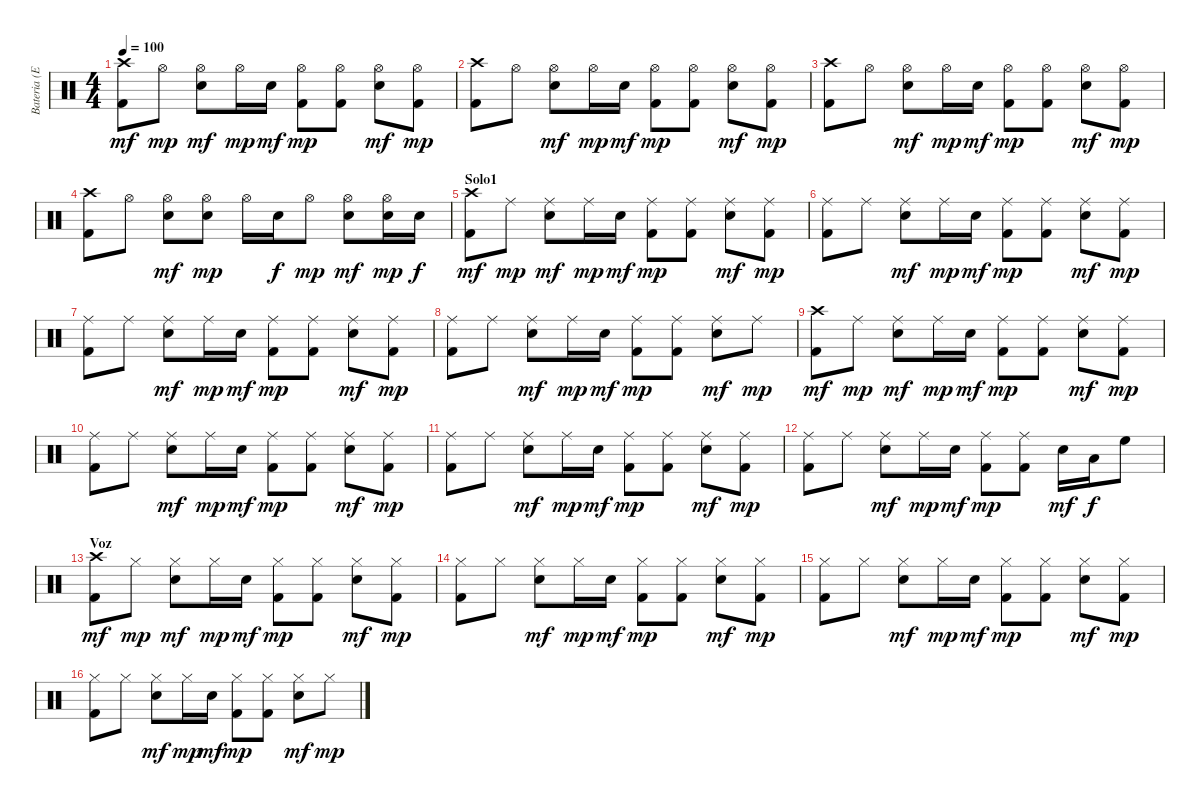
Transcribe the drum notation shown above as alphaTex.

\track ("Bateria (Eduardo)" "Bateria (E") {instrument percussion}
\staff {score}
\articulation defaults
\ts (4 4)
\tempo 100
\clef neutral
\ks c
("Crash high (hit)" "Kick (hit) 2").8{dy mf} "Hi-Hat (open)".8{dy mp} ("Hi-Hat (open)" "Electric Snare (hit)").8{dy mf} "Hi-Hat (open)".16{dy mp} "Electric Snare (hit)".16{dy mf} ("Hi-Hat (open)" "Kick (hit) 2").8{dy mp} ("Hi-Hat (open)" "Kick (hit) 2").8 ("Hi-Hat (open)" "Electric Snare (hit)").8{dy mf} ("Hi-Hat (open)" "Kick (hit) 2").8{dy mp} |
("Crash high (hit)" "Kick (hit) 2").8 "Hi-Hat (open)".8 ("Hi-Hat (open)" "Electric Snare (hit)").8{dy mf} "Hi-Hat (open)".16{dy mp} "Electric Snare (hit)".16{dy mf} ("Hi-Hat (open)" "Kick (hit) 2").8{dy mp} ("Hi-Hat (open)" "Kick (hit) 2").8 ("Hi-Hat (open)" "Electric Snare (hit)").8{dy mf} ("Hi-Hat (open)" "Kick (hit) 2").8{dy mp} |
("Crash high (hit)" "Kick (hit) 2").8 "Hi-Hat (open)".8 ("Hi-Hat (open)" "Electric Snare (hit)").8{dy mf} "Hi-Hat (open)".16{dy mp} "Electric Snare (hit)".16{dy mf} ("Hi-Hat (open)" "Kick (hit) 2").8{dy mp} ("Hi-Hat (open)" "Kick (hit) 2").8 ("Hi-Hat (open)" "Electric Snare (hit)").8{dy mf} ("Hi-Hat (open)" "Kick (hit) 2").8{dy mp} |
("Crash high (hit)" "Kick (hit) 2").8 "Hi-Hat (open)".8 ("Hi-Hat (open)" "Electric Snare (hit)").8{dy mf} ("Hi-Hat (open)" "Electric Snare (hit)").8{dy mp} "Hi-Hat (open)".16 "Electric Snare (hit)".16{dy f} "Hi-Hat (open)".8{dy mp} ("Hi-Hat (open)" "Electric Snare (hit)").8{dy mf} ("Hi-Hat (open)" "Electric Snare (hit)").16{dy mp} "Electric Snare (hit)".16{dy f} |
\section ("" "Solo1")
("Crash high (hit)" "Kick (hit) 2").8{dy mf} "Ride (middle)".8{dy mp} ("Ride (middle)" "Electric Snare (hit)").8{dy mf} "Ride (middle)".16{dy mp} "Electric Snare (hit)".16{dy mf} ("Ride (middle)" "Kick (hit) 2").8{dy mp} ("Ride (middle)" "Kick (hit) 2").8 ("Ride (middle)" "Electric Snare (hit)").8{dy mf} ("Ride (middle)" "Kick (hit) 2").8{dy mp} |
("Ride (middle)" "Kick (hit) 2").8 "Ride (middle)".8 ("Ride (middle)" "Electric Snare (hit)").8{dy mf} "Ride (middle)".16{dy mp} "Electric Snare (hit)".16{dy mf} ("Ride (middle)" "Kick (hit) 2").8{dy mp} ("Ride (middle)" "Kick (hit) 2").8 ("Ride (middle)" "Electric Snare (hit)").8{dy mf} ("Ride (middle)" "Kick (hit) 2").8{dy mp} |
("Ride (middle)" "Kick (hit) 2").8 "Ride (middle)".8 ("Ride (middle)" "Electric Snare (hit)").8{dy mf} "Ride (middle)".16{dy mp} "Electric Snare (hit)".16{dy mf} ("Ride (middle)" "Kick (hit) 2").8{dy mp} ("Ride (middle)" "Kick (hit) 2").8 ("Ride (middle)" "Electric Snare (hit)").8{dy mf} ("Ride (middle)" "Kick (hit) 2").8{dy mp} |
("Ride (middle)" "Kick (hit) 2").8 "Ride (middle)".8 ("Ride (middle)" "Electric Snare (hit)").8{dy mf} "Ride (middle)".16{dy mp} "Electric Snare (hit)".16{dy mf} ("Ride (middle)" "Kick (hit) 2").8{dy mp} ("Ride (middle)" "Kick (hit) 2").8 ("Ride (middle)" "Electric Snare (hit)").8{dy mf} "Ride (middle)".8{dy mp} |
("Crash high (hit)" "Kick (hit) 2").8{dy mf} "Ride (middle)".8{dy mp} ("Ride (middle)" "Electric Snare (hit)").8{dy mf} "Ride (middle)".16{dy mp} "Electric Snare (hit)".16{dy mf} ("Ride (middle)" "Kick (hit) 2").8{dy mp} ("Ride (middle)" "Kick (hit) 2").8 ("Ride (middle)" "Electric Snare (hit)").8{dy mf} ("Ride (middle)" "Kick (hit) 2").8{dy mp} |
("Ride (middle)" "Kick (hit) 2").8 "Ride (middle)".8 ("Ride (middle)" "Electric Snare (hit)").8{dy mf} "Ride (middle)".16{dy mp} "Electric Snare (hit)".16{dy mf} ("Ride (middle)" "Kick (hit) 2").8{dy mp} ("Ride (middle)" "Kick (hit) 2").8 ("Ride (middle)" "Electric Snare (hit)").8{dy mf} ("Ride (middle)" "Kick (hit) 2").8{dy mp} |
("Ride (middle)" "Kick (hit) 2").8 "Ride (middle)".8 ("Ride (middle)" "Electric Snare (hit)").8{dy mf} "Ride (middle)".16{dy mp} "Electric Snare (hit)".16{dy mf} ("Ride (middle)" "Kick (hit) 2").8{dy mp} ("Ride (middle)" "Kick (hit) 2").8 ("Ride (middle)" "Electric Snare (hit)").8{dy mf} ("Ride (middle)" "Kick (hit) 2").8{dy mp} |
("Ride (middle)" "Kick (hit) 2").8 "Ride (middle)".8 ("Ride (middle)" "Electric Snare (hit)").8{dy mf} "Ride (middle)".16{dy mp} "Electric Snare (hit)".16{dy mf} ("Ride (middle)" "Kick (hit) 2").8{dy mp} ("Ride (middle)" "Kick (hit) 2").8 "Electric Snare (hit)".16{dy mf} "Low Tom (hit)".16{dy f} "High Floor Tom (hit)".8 |
\section ("" "Voz")
("Crash high (hit)" "Kick (hit) 2").8{dy mf} "Hi-Hat (closed)".8{dy mp} ("Hi-Hat (closed)" "Electric Snare (hit)").8{dy mf} "Hi-Hat (closed)".16{dy mp} "Electric Snare (hit)".16{dy mf} ("Hi-Hat (closed)" "Kick (hit) 2").8{dy mp} ("Hi-Hat (closed)" "Kick (hit) 2").8 ("Hi-Hat (closed)" "Electric Snare (hit)").8{dy mf} ("Hi-Hat (closed)" "Kick (hit) 2").8{dy mp} |
("Hi-Hat (closed)" "Kick (hit) 2").8 "Hi-Hat (closed)".8 ("Hi-Hat (closed)" "Electric Snare (hit)").8{dy mf} "Hi-Hat (closed)".16{dy mp} "Electric Snare (hit)".16{dy mf} ("Hi-Hat (closed)" "Kick (hit) 2").8{dy mp} ("Hi-Hat (closed)" "Kick (hit) 2").8 ("Hi-Hat (closed)" "Electric Snare (hit)").8{dy mf} ("Hi-Hat (closed)" "Kick (hit) 2").8{dy mp} |
("Hi-Hat (closed)" "Kick (hit) 2").8 "Hi-Hat (closed)".8 ("Hi-Hat (closed)" "Electric Snare (hit)").8{dy mf} "Hi-Hat (closed)".16{dy mp} "Electric Snare (hit)".16{dy mf} ("Hi-Hat (closed)" "Kick (hit) 2").8{dy mp} ("Hi-Hat (closed)" "Kick (hit) 2").8 ("Hi-Hat (closed)" "Electric Snare (hit)").8{dy mf} ("Hi-Hat (closed)" "Kick (hit) 2").8{dy mp} |
("Hi-Hat (closed)" "Kick (hit) 2").8 "Hi-Hat (closed)".8 ("Hi-Hat (closed)" "Electric Snare (hit)").8{dy mf} "Hi-Hat (closed)".16{dy mp} "Electric Snare (hit)".16{dy mf} ("Hi-Hat (closed)" "Kick (hit) 2").8{dy mp} ("Hi-Hat (closed)" "Kick (hit) 2").8 ("Hi-Hat (closed)" "Electric Snare (hit)").8{dy mf} "Hi-Hat (closed)".8{dy mp}
